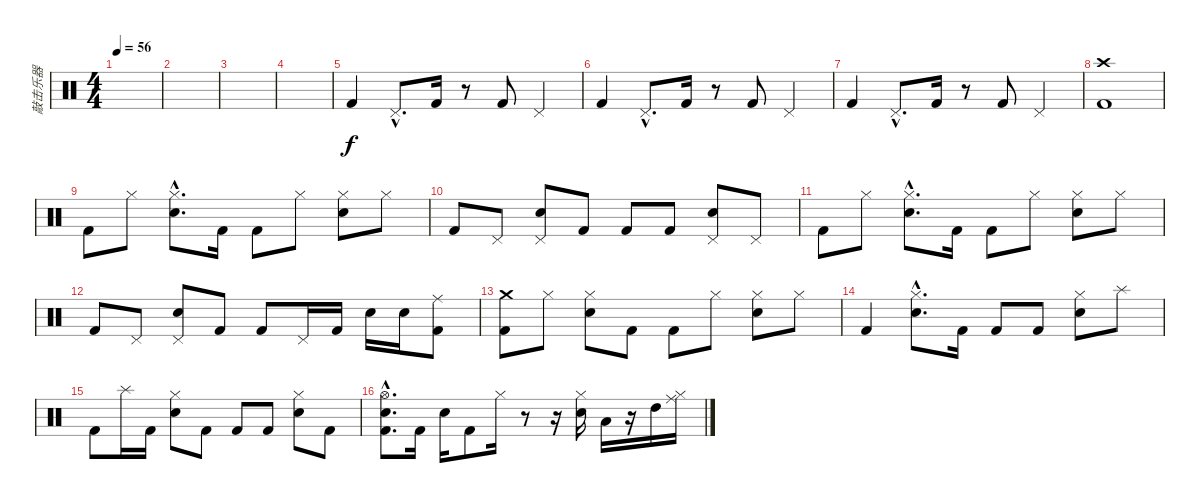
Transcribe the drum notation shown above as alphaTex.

\track ("敲击乐器" "敲击乐器") {instrument percussion}
\staff {score}
\articulation defaults
\ts (4 4)
\tempo 56
\clef neutral
\ks c
|
|
|
|
"Kick (hit) 2".4 "Pedal Hi-Hat (hit)"{hac}.8{d} "Kick (hit) 2".16 r.8 "Kick (hit) 2".8 "Pedal Hi-Hat (hit)".4 |
"Kick (hit) 2".4 "Pedal Hi-Hat (hit)"{hac}.8{d} "Kick (hit) 2".16 r.8 "Kick (hit) 2".8 "Pedal Hi-Hat (hit)".4 |
"Kick (hit) 2".4 "Pedal Hi-Hat (hit)"{hac}.8{d} "Kick (hit) 2".16 r.8 "Kick (hit) 2".8 "Pedal Hi-Hat (hit)".4 |
("Kick (hit) 2" "Crash high (hit)").1 |
"Kick (hit) 2".8 "Hi-Hat (closed)".8 ("Hi-Hat (closed)"{hac} "Electric Snare (hit)"{hac}).8{d} "Kick (hit) 2".16 "Kick (hit) 2".8 "Hi-Hat (closed)".8 ("Hi-Hat (closed)" "Electric Snare (hit)").8 "Hi-Hat (closed)".8 |
"Kick (hit) 2".8 "Pedal Hi-Hat (hit)".8 ("Pedal Hi-Hat (hit)" "Electric Snare (hit)").8 "Kick (hit) 2".8 "Kick (hit) 2".8 "Kick (hit) 2".8 ("Pedal Hi-Hat (hit)" "Electric Snare (hit)").8 "Pedal Hi-Hat (hit)".8 |
"Kick (hit) 2".8 "Hi-Hat (closed)".8 ("Hi-Hat (closed)"{hac} "Electric Snare (hit)"{hac}).8{d} "Kick (hit) 2".16 "Kick (hit) 2".8 "Hi-Hat (closed)".8 ("Hi-Hat (closed)" "Electric Snare (hit)").8 "Hi-Hat (closed)".8 |
"Kick (hit) 2".8 "Pedal Hi-Hat (hit)".8 ("Pedal Hi-Hat (hit)" "Electric Snare (hit)").8 "Kick (hit) 2".8 "Kick (hit) 2".8 "Pedal Hi-Hat (hit)".16 "Kick (hit) 2".16 "Electric Snare (hit)".16 "Electric Snare (hit)".16 ("Ride (middle)" "Kick (hit) 2").8 |
("Crash medium (hit)" "Kick (hit) 2").8 "Hi-Hat (closed)".8 ("Hi-Hat (closed)" "Electric Snare (hit)").8 "Kick (hit) 2".8 "Kick (hit) 2".8 "Hi-Hat (closed)".8 ("Hi-Hat (closed)" "Electric Snare (hit)").8 "Hi-Hat (closed)".8 |
"Kick (hit) 2".4 ("Hi-Hat (closed)"{hac} "Electric Snare (hit)").8{d} "Kick (hit) 2".16 "Kick (hit) 2".8 "Kick (hit) 2".8 ("Hi-Hat (closed)" "Electric Snare (hit)").8 "Splash (hit)".8{volume 5} |
"Kick (hit) 2".8{volume 16} "Splash (hit)".16{volume 5} "Kick (hit) 2".16 ("Hi-Hat (closed)" "Electric Snare (hit)").8 "Kick (hit) 2".8 "Kick (hit) 2".8 "Kick (hit) 2".8 ("Hi-Hat (closed)" "Electric Snare (hit)").8 "Kick (hit) 2".8 |
("Hi-Hat (open)"{hac} "Electric Snare (hit)"{hac} "Kick (hit) 2"{hac}).8{d volume 16} "Kick (hit) 2".16 "Electric Snare (hit)".16 "Kick (hit) 2".8 "Hi-Hat (closed)".16 r.8 r.16 ("Hi-Hat (closed)" "Snare (hit) 2").16 "Low Tom (hit)".16{volume 16} r.16 "High Tom (hit)".16 ("Hi-Hat (closed)" "Ride (middle)").16
